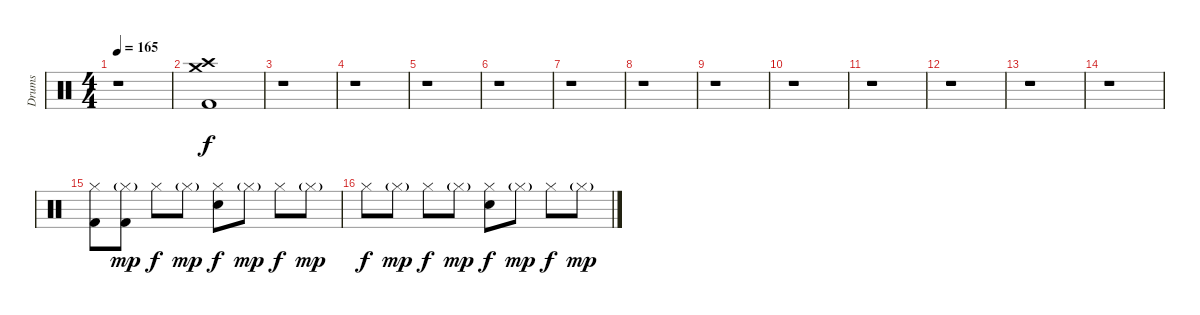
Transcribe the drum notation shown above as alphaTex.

\track ("Drums" "Drums") {instrument percussion}
\staff {score}
\articulation defaults
\ts (4 4)
\tempo 165
\clef neutral
\ks c
r.1{dy f} |
("Crash medium (hit)" "Crash high (hit)" "Kick (hit) 2").1 |
r.1 |
r.1 |
r.1 |
r.1 |
r.1 |
r.1 |
r.1 |
r.1 |
r.1 |
r.1 |
r.1 |
r.1 |
("Hi-Hat (closed)" "Kick (hit) 2").8 ("Hi-Hat (closed)"{g} "Kick (hit) 2").8{dy mp} "Hi-Hat (closed)".8{dy f} "Hi-Hat (closed)"{g}.8{dy mp} ("Hi-Hat (closed)" "Electric Snare (hit)").8{dy f} "Hi-Hat (closed)"{g}.8{dy mp} "Hi-Hat (closed)".8{dy f} "Hi-Hat (closed)"{g}.8{dy mp} |
"Hi-Hat (closed)".8{dy f} "Hi-Hat (closed)"{g}.8{dy mp} "Hi-Hat (closed)".8{dy f} "Hi-Hat (closed)"{g}.8{dy mp} ("Hi-Hat (closed)" "Electric Snare (hit)").8{dy f} "Hi-Hat (closed)"{g}.8{dy mp} "Hi-Hat (closed)".8{dy f} "Hi-Hat (closed)"{g}.8{dy mp}
